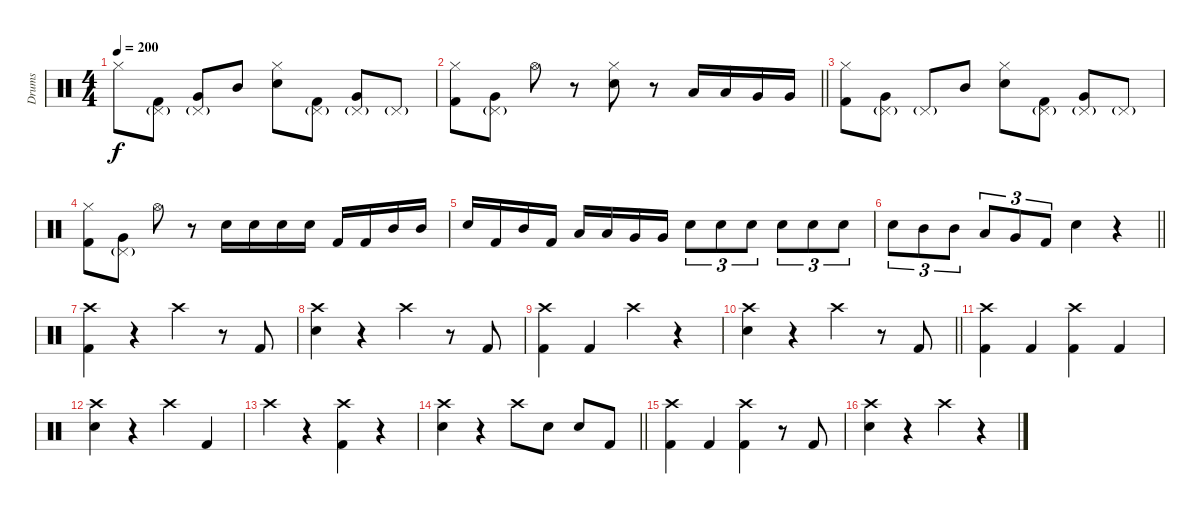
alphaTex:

\track ("Drums" "Drums") {instrument percussion}
\staff {score}
\articulation defaults
\ts (4 4)
\tempo 200
\clef neutral
\ks c "Hi-Hat (closed)".8{dy f}
("Pedal Hi-Hat (hit)"{g} "Kick (hit) 2").8 ("Pedal Hi-Hat (hit)"{g} "Very Low Tom (hit)").8 "Mid Tom (hit)".8 ("Hi-Hat (closed)" "Electric Snare (hit)").8 ("Pedal Hi-Hat (hit)"{g} "Kick (hit) 2").8 ("Pedal Hi-Hat (hit)"{g} "Very Low Tom (hit)").8 "Pedal Hi-Hat (hit)"{g}.8 |
\barLineRight lightlight
("Hi-Hat (closed)" "Kick (hit) 2").8 ("Pedal Hi-Hat (hit)"{g} "Very Low Tom (hit)").8 "Hi-Hat (open)".8 r.8 ("Hi-Hat (closed)" "Electric Snare (hit)").8 r.8 "Low Tom (hit)".16 "Low Tom (hit)".16 "Very Low Tom (hit)".16 "Very Low Tom (hit)".16 |
("Hi-Hat (closed)" "Kick (hit) 2").8 ("Pedal Hi-Hat (hit)"{g} "Very Low Tom (hit)").8 "Pedal Hi-Hat (hit)"{g}.8 "Mid Tom (hit)".8 ("Hi-Hat (closed)" "Electric Snare (hit)").8 ("Pedal Hi-Hat (hit)"{g} "Kick (hit) 2").8 ("Pedal Hi-Hat (hit)"{g} "Very Low Tom (hit)").8 "Pedal Hi-Hat (hit)"{g}.8 |
("Hi-Hat (closed)" "Kick (hit) 2").8 ("Pedal Hi-Hat (hit)"{g} "Very Low Tom (hit)").8 "Hi-Hat (open)".8 r.8 "Electric Snare (hit)".16 "Electric Snare (hit)".16 "Electric Snare (hit)".16 "Electric Snare (hit)".16 "Kick (hit) 2".16 "Kick (hit) 2".16 "Mid Tom (hit)".16 "Mid Tom (hit)".16 |
"Electric Snare (hit)".16 "Kick (hit) 2".16 "Mid Tom (hit)".16 "Kick (hit) 2".16 "Low Tom (hit)".16 "Low Tom (hit)".16 "Very Low Tom (hit)".16 "Very Low Tom (hit)".16 "Electric Snare (hit)".8{tu (3 2)} "Electric Snare (hit)".8{tu (3 2)} "Electric Snare (hit)".8{tu (3 2)} "Electric Snare (hit)".8{tu (3 2)} "Electric Snare (hit)".8{tu (3 2)} "Electric Snare (hit)".8{tu (3 2)} |
\barLineRight lightlight "Electric Snare (hit)".8{tu (3 2)} "Mid Tom (hit)".8{tu (3 2)} "Mid Tom (hit)".8{tu (3 2)} "Low Tom (hit)".8{tu (3 2)} "Very Low Tom (hit)".8{tu (3 2)} "Kick (hit) 2".8{tu (3 2)} "Electric Snare (hit)".4
r.4 |
("Crash high (hit)" "Kick (hit) 2").4 r.4 "Crash high (hit)".4 r.8 "Kick (hit) 2".8 |
("Crash high (hit)" "Electric Snare (hit)").4 r.4 "Crash high (hit)".4 r.8 "Kick (hit) 2".8 |
("Crash high (hit)" "Kick (hit) 2").4 "Kick (hit) 2".4 "Crash high (hit)".4 r.4 |
\barLineRight lightlight
("Crash high (hit)" "Electric Snare (hit)").4 r.4 "Crash high (hit)".4 r.8 "Kick (hit) 2".8 |
("Crash high (hit)" "Kick (hit) 2").4 "Kick (hit) 2".4 ("Crash high (hit)" "Kick (hit) 2").4 "Kick (hit) 2".4 |
("Crash high (hit)" "Electric Snare (hit)").4 r.4 "Crash high (hit)".4 "Kick (hit) 2".4 |
"Crash high (hit)".4 r.4 ("Crash high (hit)" "Kick (hit) 2").4 r.4 |
\barLineRight lightlight
("Crash high (hit)" "Electric Snare (hit)").4 r.4 "Crash high (hit)".8 "Electric Snare (hit)".8 "Electric Snare (hit)".8 "Kick (hit) 2".8 |
("Crash high (hit)" "Kick (hit) 2").4 "Kick (hit) 2".4 ("Crash high (hit)" "Kick (hit) 2").4 r.8 "Kick (hit) 2".8 |
("Crash high (hit)" "Electric Snare (hit)").4 r.4 "Crash high (hit)".4 r.4
